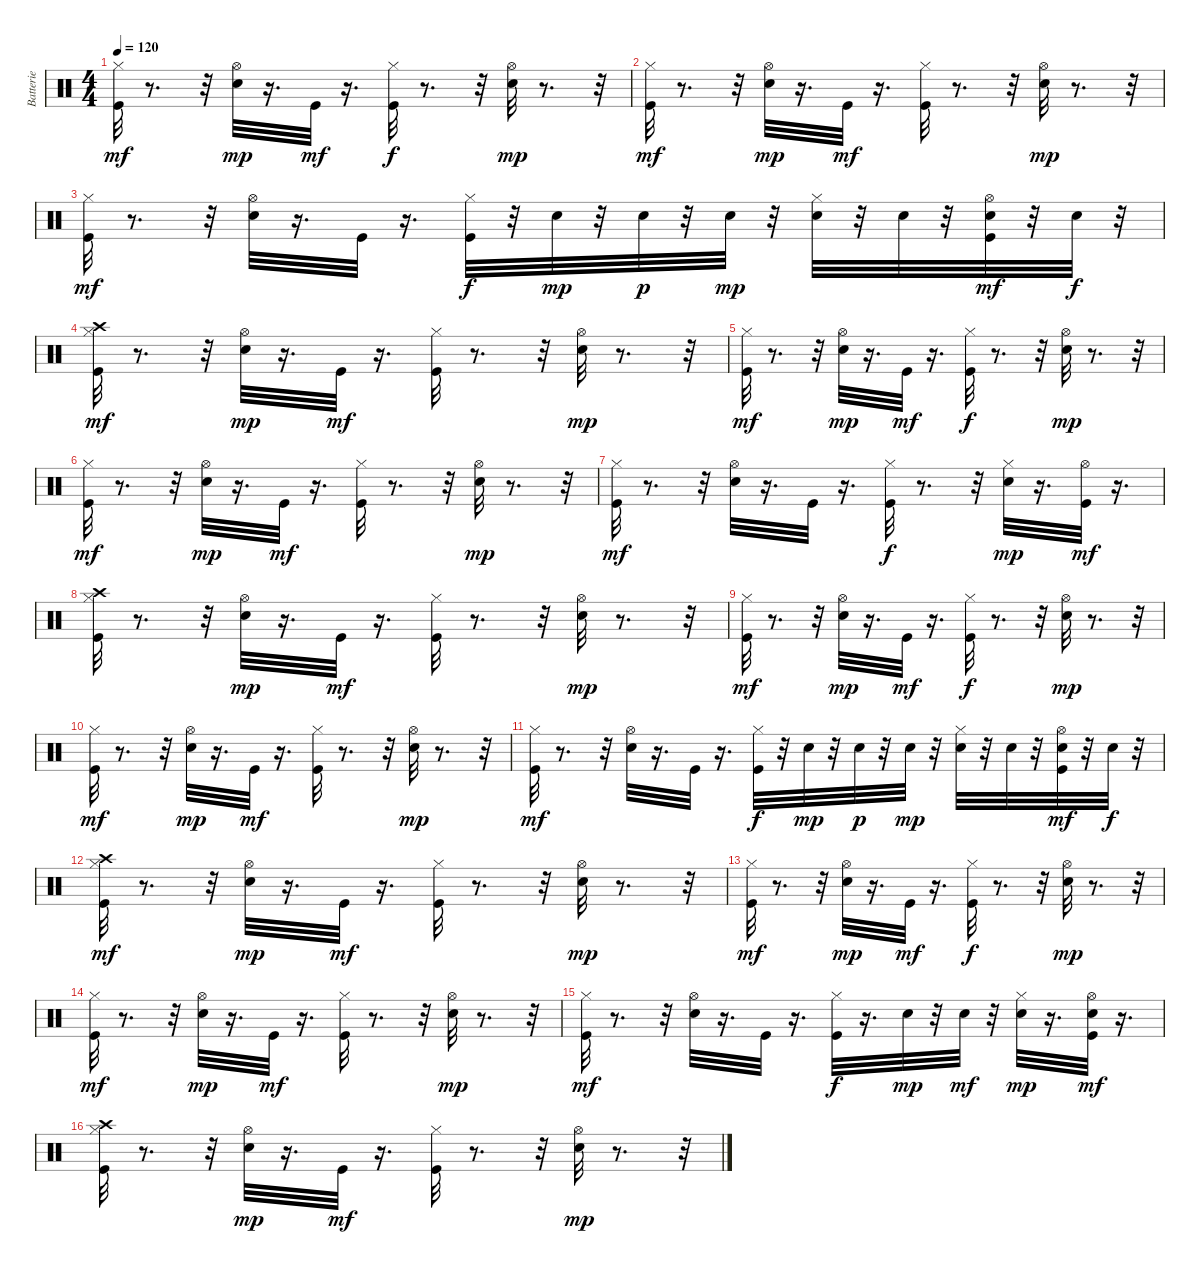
\track ("Batterie" "Batterie") {instrument percussion}
\staff {score}
\articulation defaults
\ts (4 4)
\tempo 120
\clef neutral
\ks c
("Hi-Hat (closed)" "Kick (hit)").32{dy mf} r.8{d} r.32 ("Hi-Hat (open)" "Electric Snare (hit)").32{dy mp} r.16{d} "Kick (hit)".32{dy mf} r.16{d} ("Hi-Hat (closed)" "Kick (hit)").32{dy f} r.8{d} r.32 ("Hi-Hat (open)" "Electric Snare (hit)").32{dy mp} r.8{d} r.32 |
("Hi-Hat (closed)" "Kick (hit)").32{dy mf} r.8{d} r.32 ("Hi-Hat (open)" "Electric Snare (hit)").32{dy mp} r.16{d} "Kick (hit)".32{dy mf} r.16{d} ("Hi-Hat (closed)" "Kick (hit)").32 r.8{d} r.32 ("Hi-Hat (open)" "Electric Snare (hit)").32{dy mp} r.8{d} r.32 |
("Hi-Hat (closed)" "Kick (hit)").32{dy mf} r.8{d} r.32 ("Hi-Hat (open)" "Electric Snare (hit)").32 r.16{d} "Kick (hit)".32 r.16{d} ("Hi-Hat (closed)" "Kick (hit)").32{dy f} r.32 "Electric Snare (hit)".32{dy mp} r.32 "Electric Snare (hit)".32{dy p} r.32 "Electric Snare (hit)".32{dy mp} r.32 ("Hi-Hat (closed)" "Electric Snare (hit)").32 r.32 "Electric Snare (hit)".32 r.32 ("Hi-Hat (open)" "Electric Snare (hit)" "Kick (hit)").32{dy mf} r.32 "Electric Snare (hit)".32{dy f} r.32 |
("Crash high (hit)" "Hi-Hat (closed)" "Kick (hit)").32{dy mf} r.8{d} r.32 ("Hi-Hat (open)" "Electric Snare (hit)").32{dy mp} r.16{d} "Kick (hit)".32{dy mf} r.16{d} ("Hi-Hat (closed)" "Kick (hit)").32 r.8{d} r.32 ("Hi-Hat (open)" "Electric Snare (hit)").32{dy mp} r.8{d} r.32 |
("Hi-Hat (closed)" "Kick (hit)").32{dy mf} r.8{d} r.32 ("Hi-Hat (open)" "Electric Snare (hit)").32{dy mp} r.16{d} "Kick (hit)".32{dy mf} r.16{d} ("Hi-Hat (closed)" "Kick (hit)").32{dy f} r.8{d} r.32 ("Hi-Hat (open)" "Electric Snare (hit)").32{dy mp} r.8{d} r.32 |
("Hi-Hat (closed)" "Kick (hit)").32{dy mf} r.8{d} r.32 ("Hi-Hat (open)" "Electric Snare (hit)").32{dy mp} r.16{d} "Kick (hit)".32{dy mf} r.16{d} ("Hi-Hat (closed)" "Kick (hit)").32 r.8{d} r.32 ("Hi-Hat (open)" "Electric Snare (hit)").32{dy mp} r.8{d} r.32 |
("Hi-Hat (closed)" "Kick (hit)").32{dy mf} r.8{d} r.32 ("Hi-Hat (open)" "Electric Snare (hit)").32 r.16{d} "Kick (hit)".32 r.16{d} ("Hi-Hat (closed)" "Kick (hit)").32{dy f} r.8{d} r.32 ("Hi-Hat (closed)" "Electric Snare (hit)").32{dy mp} r.16{d} ("Hi-Hat (open)" "Kick (hit)").32{dy mf} r.16{d} |
("Crash high (hit)" "Hi-Hat (closed)" "Kick (hit)").32 r.8{d} r.32 ("Hi-Hat (open)" "Electric Snare (hit)").32{dy mp} r.16{d} "Kick (hit)".32{dy mf} r.16{d} ("Hi-Hat (closed)" "Kick (hit)").32 r.8{d} r.32 ("Hi-Hat (open)" "Electric Snare (hit)").32{dy mp} r.8{d} r.32 |
("Hi-Hat (closed)" "Kick (hit)").32{dy mf} r.8{d} r.32 ("Hi-Hat (open)" "Electric Snare (hit)").32{dy mp} r.16{d} "Kick (hit)".32{dy mf} r.16{d} ("Hi-Hat (closed)" "Kick (hit)").32{dy f} r.8{d} r.32 ("Hi-Hat (open)" "Electric Snare (hit)").32{dy mp} r.8{d} r.32 |
("Hi-Hat (closed)" "Kick (hit)").32{dy mf} r.8{d} r.32 ("Hi-Hat (open)" "Electric Snare (hit)").32{dy mp} r.16{d} "Kick (hit)".32{dy mf} r.16{d} ("Hi-Hat (closed)" "Kick (hit)").32 r.8{d} r.32 ("Hi-Hat (open)" "Electric Snare (hit)").32{dy mp} r.8{d} r.32 |
("Hi-Hat (closed)" "Kick (hit)").32{dy mf} r.8{d} r.32 ("Hi-Hat (open)" "Electric Snare (hit)").32 r.16{d} "Kick (hit)".32 r.16{d} ("Hi-Hat (closed)" "Kick (hit)").32{dy f} r.32 "Electric Snare (hit)".32{dy mp} r.32 "Electric Snare (hit)".32{dy p} r.32 "Electric Snare (hit)".32{dy mp} r.32 ("Hi-Hat (closed)" "Electric Snare (hit)").32 r.32 "Electric Snare (hit)".32 r.32 ("Hi-Hat (open)" "Electric Snare (hit)" "Kick (hit)").32{dy mf} r.32 "Electric Snare (hit)".32{dy f} r.32 |
("Crash high (hit)" "Hi-Hat (closed)" "Kick (hit)").32{dy mf} r.8{d} r.32 ("Hi-Hat (open)" "Electric Snare (hit)").32{dy mp} r.16{d} "Kick (hit)".32{dy mf} r.16{d} ("Hi-Hat (closed)" "Kick (hit)").32 r.8{d} r.32 ("Hi-Hat (open)" "Electric Snare (hit)").32{dy mp} r.8{d} r.32 |
("Hi-Hat (closed)" "Kick (hit)").32{dy mf} r.8{d} r.32 ("Hi-Hat (open)" "Electric Snare (hit)").32{dy mp} r.16{d} "Kick (hit)".32{dy mf} r.16{d} ("Hi-Hat (closed)" "Kick (hit)").32{dy f} r.8{d} r.32 ("Hi-Hat (open)" "Electric Snare (hit)").32{dy mp} r.8{d} r.32 |
("Hi-Hat (closed)" "Kick (hit)").32{dy mf} r.8{d} r.32 ("Hi-Hat (open)" "Electric Snare (hit)").32{dy mp} r.16{d} "Kick (hit)".32{dy mf} r.16{d} ("Hi-Hat (closed)" "Kick (hit)").32 r.8{d} r.32 ("Hi-Hat (open)" "Electric Snare (hit)").32{dy mp} r.8{d} r.32 |
("Hi-Hat (closed)" "Kick (hit)").32{dy mf} r.8{d} r.32 ("Hi-Hat (open)" "Electric Snare (hit)").32 r.16{d} "Kick (hit)".32 r.16{d} ("Hi-Hat (closed)" "Kick (hit)").32{dy f} r.16{d} "Electric Snare (hit)".32{dy mp} r.32 "Electric Snare (hit)".32{dy mf} r.32 ("Hi-Hat (closed)" "Electric Snare (hit)").32{dy mp} r.16{d} ("Hi-Hat (open)" "Electric Snare (hit)" "Kick (hit)").32{dy mf} r.16{d} |
("Crash high (hit)" "Hi-Hat (closed)" "Kick (hit)").32 r.8{d} r.32 ("Hi-Hat (open)" "Electric Snare (hit)").32{dy mp} r.16{d} "Kick (hit)".32{dy mf} r.16{d} ("Hi-Hat (closed)" "Kick (hit)").32 r.8{d} r.32 ("Hi-Hat (open)" "Electric Snare (hit)").32{dy mp} r.8{d} r.32
